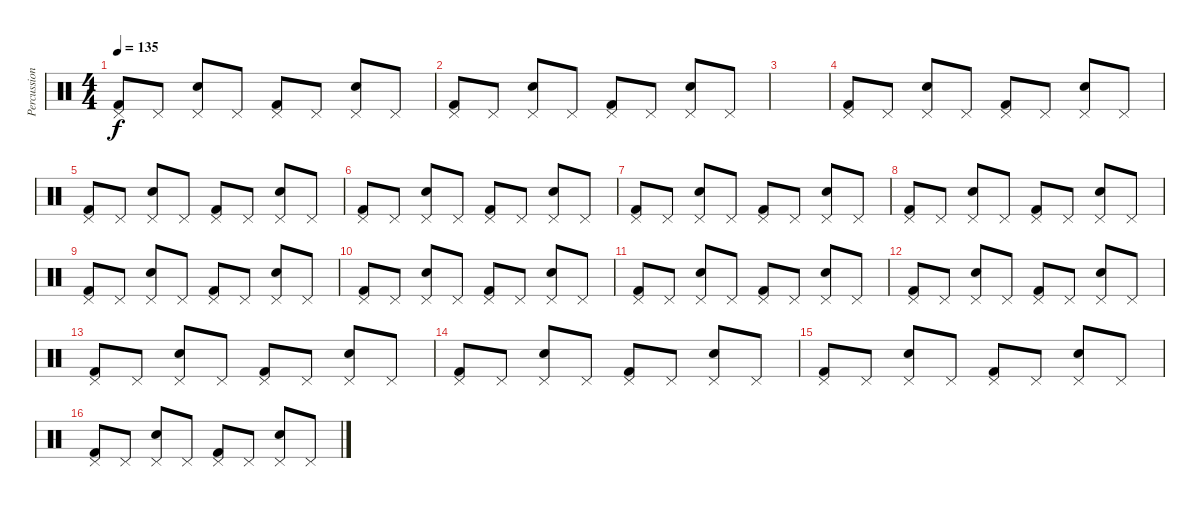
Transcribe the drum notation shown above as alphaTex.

\track ("Percussions" "Percussion") {instrument percussion}
\staff {score}
\articulation defaults
\ts (4 4)
\tempo 135
\clef neutral
\ks c
("Pedal Hi-Hat (hit)" "Kick (hit) 2").8{dy f} "Pedal Hi-Hat (hit)".8 ("Pedal Hi-Hat (hit)" "Electric Snare (hit)").8 "Pedal Hi-Hat (hit)".8 ("Pedal Hi-Hat (hit)" "Kick (hit) 2").8 "Pedal Hi-Hat (hit)".8 ("Pedal Hi-Hat (hit)" "Electric Snare (hit)").8 "Pedal Hi-Hat (hit)".8 |
("Pedal Hi-Hat (hit)" "Kick (hit) 2").8 "Pedal Hi-Hat (hit)".8 ("Pedal Hi-Hat (hit)" "Electric Snare (hit)").8 "Pedal Hi-Hat (hit)".8 ("Pedal Hi-Hat (hit)" "Kick (hit) 2").8 "Pedal Hi-Hat (hit)".8 ("Pedal Hi-Hat (hit)" "Electric Snare (hit)").8 "Pedal Hi-Hat (hit)".8 |
|
("Pedal Hi-Hat (hit)" "Kick (hit) 2").8 "Pedal Hi-Hat (hit)".8 ("Pedal Hi-Hat (hit)" "Electric Snare (hit)").8 "Pedal Hi-Hat (hit)".8 ("Pedal Hi-Hat (hit)" "Kick (hit) 2").8 "Pedal Hi-Hat (hit)".8 ("Pedal Hi-Hat (hit)" "Electric Snare (hit)").8 "Pedal Hi-Hat (hit)".8 |
("Pedal Hi-Hat (hit)" "Kick (hit) 2").8 "Pedal Hi-Hat (hit)".8 ("Pedal Hi-Hat (hit)" "Electric Snare (hit)").8 "Pedal Hi-Hat (hit)".8 ("Pedal Hi-Hat (hit)" "Kick (hit) 2").8 "Pedal Hi-Hat (hit)".8 ("Pedal Hi-Hat (hit)" "Electric Snare (hit)").8 "Pedal Hi-Hat (hit)".8 |
("Pedal Hi-Hat (hit)" "Kick (hit) 2").8 "Pedal Hi-Hat (hit)".8 ("Pedal Hi-Hat (hit)" "Electric Snare (hit)").8 "Pedal Hi-Hat (hit)".8 ("Pedal Hi-Hat (hit)" "Kick (hit) 2").8 "Pedal Hi-Hat (hit)".8 ("Pedal Hi-Hat (hit)" "Electric Snare (hit)").8 "Pedal Hi-Hat (hit)".8 |
("Pedal Hi-Hat (hit)" "Kick (hit) 2").8 "Pedal Hi-Hat (hit)".8 ("Pedal Hi-Hat (hit)" "Electric Snare (hit)").8 "Pedal Hi-Hat (hit)".8 ("Pedal Hi-Hat (hit)" "Kick (hit) 2").8 "Pedal Hi-Hat (hit)".8 ("Pedal Hi-Hat (hit)" "Electric Snare (hit)").8 "Pedal Hi-Hat (hit)".8 |
("Pedal Hi-Hat (hit)" "Kick (hit) 2").8 "Pedal Hi-Hat (hit)".8 ("Pedal Hi-Hat (hit)" "Electric Snare (hit)").8 "Pedal Hi-Hat (hit)".8 ("Pedal Hi-Hat (hit)" "Kick (hit) 2").8 "Pedal Hi-Hat (hit)".8 ("Pedal Hi-Hat (hit)" "Electric Snare (hit)").8 "Pedal Hi-Hat (hit)".8 |
("Pedal Hi-Hat (hit)" "Kick (hit) 2").8 "Pedal Hi-Hat (hit)".8 ("Pedal Hi-Hat (hit)" "Electric Snare (hit)").8 "Pedal Hi-Hat (hit)".8 ("Pedal Hi-Hat (hit)" "Kick (hit) 2").8 "Pedal Hi-Hat (hit)".8 ("Pedal Hi-Hat (hit)" "Electric Snare (hit)").8 "Pedal Hi-Hat (hit)".8 |
("Pedal Hi-Hat (hit)" "Kick (hit) 2").8 "Pedal Hi-Hat (hit)".8 ("Pedal Hi-Hat (hit)" "Electric Snare (hit)").8 "Pedal Hi-Hat (hit)".8 ("Pedal Hi-Hat (hit)" "Kick (hit) 2").8 "Pedal Hi-Hat (hit)".8 ("Pedal Hi-Hat (hit)" "Electric Snare (hit)").8 "Pedal Hi-Hat (hit)".8 |
("Pedal Hi-Hat (hit)" "Kick (hit) 2").8 "Pedal Hi-Hat (hit)".8 ("Pedal Hi-Hat (hit)" "Electric Snare (hit)").8 "Pedal Hi-Hat (hit)".8 ("Pedal Hi-Hat (hit)" "Kick (hit) 2").8 "Pedal Hi-Hat (hit)".8 ("Pedal Hi-Hat (hit)" "Electric Snare (hit)").8 "Pedal Hi-Hat (hit)".8 |
("Pedal Hi-Hat (hit)" "Kick (hit) 2").8 "Pedal Hi-Hat (hit)".8 ("Pedal Hi-Hat (hit)" "Electric Snare (hit)").8 "Pedal Hi-Hat (hit)".8 ("Pedal Hi-Hat (hit)" "Kick (hit) 2").8 "Pedal Hi-Hat (hit)".8 ("Pedal Hi-Hat (hit)" "Electric Snare (hit)").8 "Pedal Hi-Hat (hit)".8 |
("Pedal Hi-Hat (hit)" "Kick (hit) 2").8 "Pedal Hi-Hat (hit)".8 ("Pedal Hi-Hat (hit)" "Electric Snare (hit)").8 "Pedal Hi-Hat (hit)".8 ("Pedal Hi-Hat (hit)" "Kick (hit) 2").8 "Pedal Hi-Hat (hit)".8 ("Pedal Hi-Hat (hit)" "Electric Snare (hit)").8 "Pedal Hi-Hat (hit)".8 |
("Pedal Hi-Hat (hit)" "Kick (hit) 2").8 "Pedal Hi-Hat (hit)".8 ("Pedal Hi-Hat (hit)" "Electric Snare (hit)").8 "Pedal Hi-Hat (hit)".8 ("Pedal Hi-Hat (hit)" "Kick (hit) 2").8 "Pedal Hi-Hat (hit)".8 ("Pedal Hi-Hat (hit)" "Electric Snare (hit)").8 "Pedal Hi-Hat (hit)".8 |
("Pedal Hi-Hat (hit)" "Kick (hit) 2").8 "Pedal Hi-Hat (hit)".8 ("Pedal Hi-Hat (hit)" "Electric Snare (hit)").8 "Pedal Hi-Hat (hit)".8 ("Pedal Hi-Hat (hit)" "Kick (hit) 2").8 "Pedal Hi-Hat (hit)".8 ("Pedal Hi-Hat (hit)" "Electric Snare (hit)").8 "Pedal Hi-Hat (hit)".8 |
("Pedal Hi-Hat (hit)" "Kick (hit) 2").8 "Pedal Hi-Hat (hit)".8 ("Pedal Hi-Hat (hit)" "Electric Snare (hit)").8 "Pedal Hi-Hat (hit)".8 ("Pedal Hi-Hat (hit)" "Kick (hit) 2").8 "Pedal Hi-Hat (hit)".8 ("Pedal Hi-Hat (hit)" "Electric Snare (hit)").8 "Pedal Hi-Hat (hit)".8
